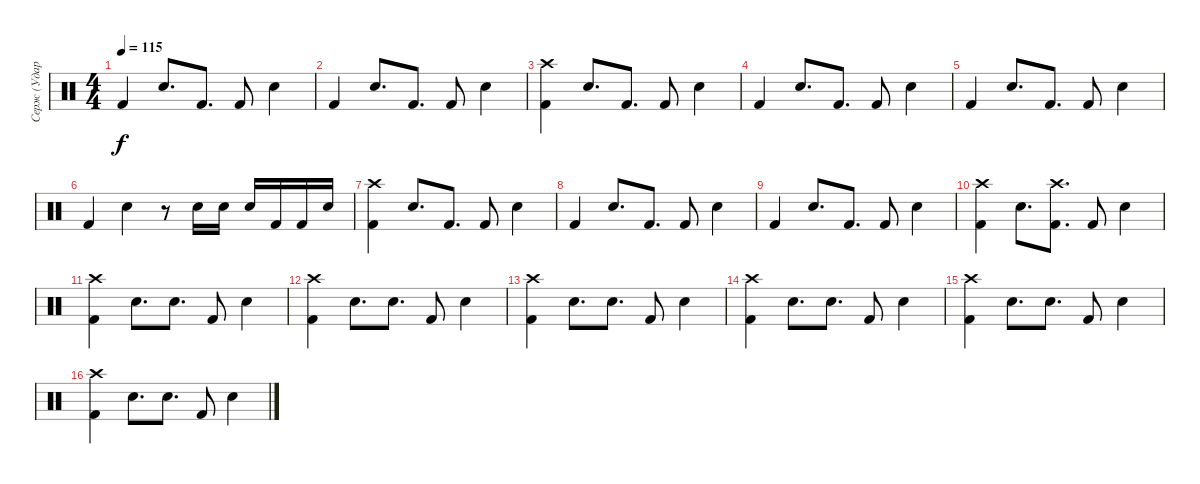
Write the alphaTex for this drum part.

\track ("Серж (Ударные)" "Серж (Удар") {instrument percussion}
\staff {score}
\articulation defaults
\ts (4 4)
\tempo 115
\clef neutral
\ks c "Kick (hit) 2".4{dy f} "Snare (hit) 2".8{d} "Kick (hit) 2".8{d} "Kick (hit) 2".8 "Snare (hit) 2".4
|
"Kick (hit) 2".4 "Snare (hit) 2".8{d} "Kick (hit) 2".8{d} "Kick (hit) 2".8 "Snare (hit) 2".4 |
("Kick (hit) 2" "Crash high (hit)").4 "Snare (hit) 2".8{d} "Kick (hit) 2".8{d} "Kick (hit) 2".8 "Snare (hit) 2".4 |
"Kick (hit) 2".4 "Snare (hit) 2".8{d} "Kick (hit) 2".8{d} "Kick (hit) 2".8 "Snare (hit) 2".4 |
"Kick (hit) 2".4 "Snare (hit) 2".8{d} "Kick (hit) 2".8{d} "Kick (hit) 2".8 "Snare (hit) 2".4 |
"Kick (hit) 2".4 "Snare (hit) 2".4 r.8 "Snare (hit) 2".16 "Snare (hit) 2".16 "Snare (hit) 2".16 "Kick (hit) 2".16 "Kick (hit) 2".16 "Snare (hit) 2".16 |
("Kick (hit) 2" "Crash high (hit)").4 "Snare (hit) 2".8{d} "Kick (hit) 2".8{d} "Kick (hit) 2".8 "Snare (hit) 2".4 |
"Kick (hit) 2".4 "Snare (hit) 2".8{d} "Kick (hit) 2".8{d} "Kick (hit) 2".8 "Snare (hit) 2".4 |
"Kick (hit) 2".4 "Snare (hit) 2".8{d} "Kick (hit) 2".8{d} "Kick (hit) 2".8 "Snare (hit) 2".4 |
("Kick (hit) 2" "Crash high (hit)").4 "Snare (hit) 2".8{d} ("Kick (hit) 2" "Crash high (hit)").8{d} "Kick (hit) 2".8 "Snare (hit) 2".4 |
("Kick (hit) 2" "Crash high (hit)").4 "Snare (hit) 2".8{d} "Snare (hit) 2".8{d} "Kick (hit) 2".8 "Snare (hit) 2".4 |
("Kick (hit) 2" "Crash high (hit)").4 "Snare (hit) 2".8{d} "Snare (hit) 2".8{d} "Kick (hit) 2".8 "Snare (hit) 2".4 |
("Kick (hit) 2" "Crash high (hit)").4 "Snare (hit) 2".8{d} "Snare (hit) 2".8{d} "Kick (hit) 2".8 "Snare (hit) 2".4 |
("Kick (hit) 2" "Crash high (hit)").4 "Snare (hit) 2".8{d} "Snare (hit) 2".8{d} "Kick (hit) 2".8 "Snare (hit) 2".4 |
("Kick (hit) 2" "Crash high (hit)").4 "Snare (hit) 2".8{d} "Snare (hit) 2".8{d} "Kick (hit) 2".8 "Snare (hit) 2".4 |
("Kick (hit) 2" "Crash high (hit)").4 "Snare (hit) 2".8{d} "Snare (hit) 2".8{d} "Kick (hit) 2".8 "Snare (hit) 2".4
